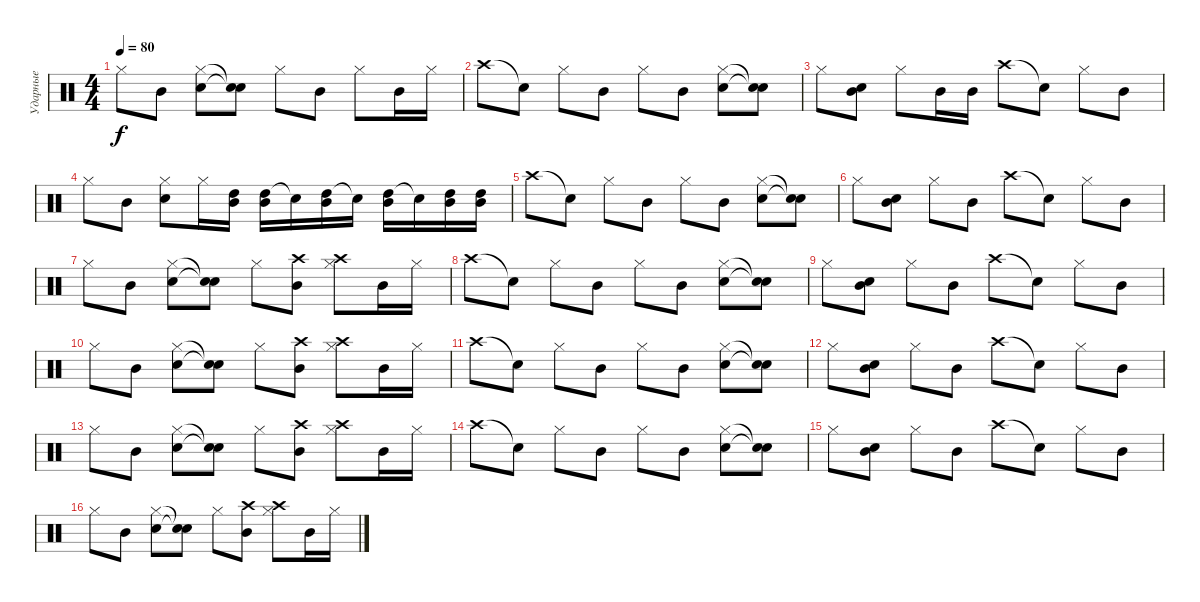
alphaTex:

\track ("Ударные" "Ударные") {instrument percussion}
\staff {score}
\articulation defaults
\ts (4 4)
\tempo 80
\clef neutral
\ks c "Hi-Hat (closed)".8{dy f} "Mid Tom (hit)".8
("Electric Snare (hit)" "Hi-Hat (closed)").8 ("Snare (hit)"{t} "Snare (hit)"{t}).8 "Hi-Hat (closed)".8 "Mid Tom (hit)".8 "Hi-Hat (closed)".8 "Mid Tom (hit)".16 "Hi-Hat (closed)".16 |
"Crash high (hit)".8 "Snare (hit)"{t}.8 "Hi-Hat (closed)".8 "Mid Tom (hit)".8 "Hi-Hat (closed)".8 "Mid Tom (hit)".8 ("Electric Snare (hit)" "Hi-Hat (closed)").8 ("Snare (hit)"{t} "Snare (hit)"{t}).8 |
"Hi-Hat (closed)".8 ("Mid Tom (hit)" "Electric Snare (hit)").8 "Hi-Hat (closed)".8 "Mid Tom (hit)".16 "Mid Tom (hit)".16 "Crash high (hit)".8 "Snare (hit)"{t}.8 "Hi-Hat (closed)".8 "Mid Tom (hit)".8 |
"Hi-Hat (closed)".8 "Mid Tom (hit)".8 ("Electric Snare (hit)" "Hi-Hat (closed)").8 "Hi-Hat (closed)".16 ("High Tom (hit)" "Mid Tom (hit)").16 ("High Tom (hit)" "Mid Tom (hit)").16 "Snare (hit)"{t}.16 ("High Tom (hit)" "Mid Tom (hit)").16 "Snare (hit)"{t}.16 ("High Tom (hit)" "Mid Tom (hit)").16 "Snare (hit)"{t}.16 ("High Tom (hit)" "Mid Tom (hit)").16 ("High Tom (hit)" "Mid Tom (hit)").16 |
"Crash high (hit)".8 "Snare (hit)"{t}.8 "Hi-Hat (closed)".8 "Mid Tom (hit)".8 "Hi-Hat (closed)".8 "Mid Tom (hit)".8 ("Electric Snare (hit)" "Hi-Hat (closed)").8 ("Snare (hit)"{t} "Snare (hit)"{t}).8 |
"Hi-Hat (closed)".8 ("Mid Tom (hit)" "Electric Snare (hit)").8 "Hi-Hat (closed)".8 "Mid Tom (hit)".8 "Crash high (hit)".8 "Snare (hit)"{t}.8 "Hi-Hat (closed)".8 "Mid Tom (hit)".8 |
"Hi-Hat (closed)".8 "Mid Tom (hit)".8 ("Electric Snare (hit)" "Hi-Hat (closed)").8 ("Snare (hit)"{t} "Snare (hit)"{t}).8 "Hi-Hat (closed)".8 ("Mid Tom (hit)" "Crash high (hit)").8 ("Hi-Hat (closed)" "Crash high (hit)").8 "Mid Tom (hit)".16 "Hi-Hat (closed)".16 |
"Crash high (hit)".8 "Snare (hit)"{t}.8 "Hi-Hat (closed)".8 "Mid Tom (hit)".8 "Hi-Hat (closed)".8 "Mid Tom (hit)".8 ("Electric Snare (hit)" "Hi-Hat (closed)").8 ("Snare (hit)"{t} "Snare (hit)"{t}).8 |
"Hi-Hat (closed)".8 ("Mid Tom (hit)" "Electric Snare (hit)").8 "Hi-Hat (closed)".8 "Mid Tom (hit)".8 "Crash high (hit)".8 "Snare (hit)"{t}.8 "Hi-Hat (closed)".8 "Mid Tom (hit)".8 |
"Hi-Hat (closed)".8 "Mid Tom (hit)".8 ("Electric Snare (hit)" "Hi-Hat (closed)").8 ("Snare (hit)"{t} "Snare (hit)"{t}).8 "Hi-Hat (closed)".8 ("Mid Tom (hit)" "Crash high (hit)").8 ("Hi-Hat (closed)" "Crash high (hit)").8 "Mid Tom (hit)".16 "Hi-Hat (closed)".16 |
"Crash high (hit)".8 "Snare (hit)"{t}.8 "Hi-Hat (closed)".8 "Mid Tom (hit)".8 "Hi-Hat (closed)".8 "Mid Tom (hit)".8 ("Electric Snare (hit)" "Hi-Hat (closed)").8 ("Snare (hit)"{t} "Snare (hit)"{t}).8 |
"Hi-Hat (closed)".8 ("Mid Tom (hit)" "Electric Snare (hit)").8 "Hi-Hat (closed)".8 "Mid Tom (hit)".8 "Crash high (hit)".8 "Snare (hit)"{t}.8 "Hi-Hat (closed)".8 "Mid Tom (hit)".8 |
"Hi-Hat (closed)".8 "Mid Tom (hit)".8 ("Electric Snare (hit)" "Hi-Hat (closed)").8 ("Snare (hit)"{t} "Snare (hit)"{t}).8 "Hi-Hat (closed)".8 ("Mid Tom (hit)" "Crash high (hit)").8 ("Hi-Hat (closed)" "Crash high (hit)").8 "Mid Tom (hit)".16 "Hi-Hat (closed)".16 |
"Crash high (hit)".8 "Snare (hit)"{t}.8 "Hi-Hat (closed)".8 "Mid Tom (hit)".8 "Hi-Hat (closed)".8 "Mid Tom (hit)".8 ("Electric Snare (hit)" "Hi-Hat (closed)").8 ("Snare (hit)"{t} "Snare (hit)"{t}).8 |
"Hi-Hat (closed)".8 ("Mid Tom (hit)" "Electric Snare (hit)").8 "Hi-Hat (closed)".8 "Mid Tom (hit)".8 "Crash high (hit)".8 "Snare (hit)"{t}.8 "Hi-Hat (closed)".8 "Mid Tom (hit)".8 |
"Hi-Hat (closed)".8 "Mid Tom (hit)".8 ("Electric Snare (hit)" "Hi-Hat (closed)").8 ("Snare (hit)"{t} "Snare (hit)"{t}).8 "Hi-Hat (closed)".8 ("Mid Tom (hit)" "Crash high (hit)").8 ("Hi-Hat (closed)" "Crash high (hit)").8 "Mid Tom (hit)".16 "Hi-Hat (closed)".16
